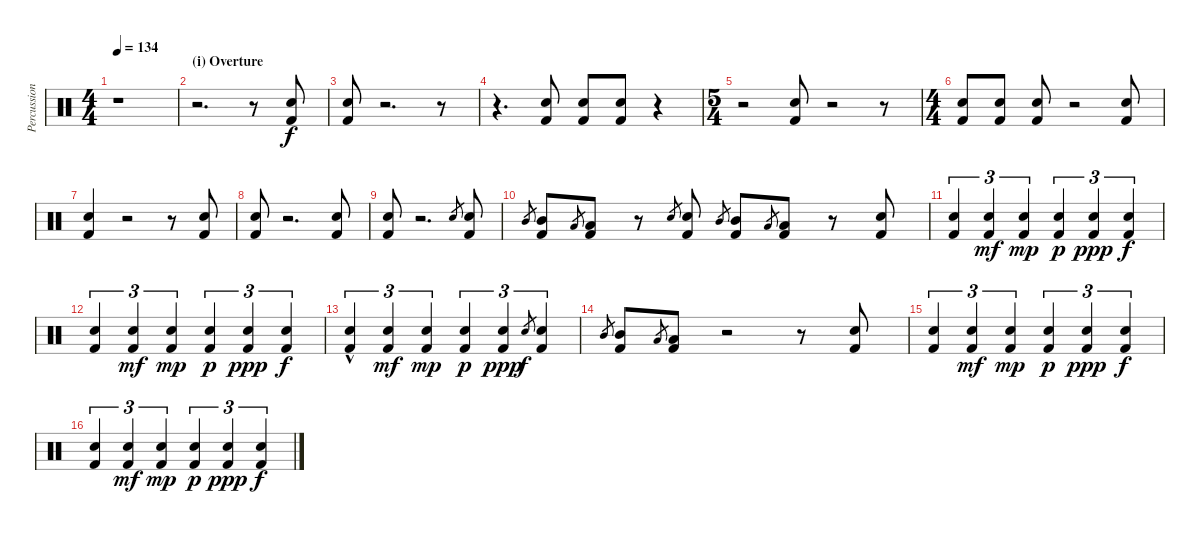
\track ("Percussion" "Percussion") {instrument percussion}
\staff {score}
\articulation defaults
\ts (4 4)
\tempo 134
\clef neutral
\ks c
r.1{dy f} |
\section ("" "(i) Overture")
r.2{d} r.8 ("Kick (hit) 2" "Electric Snare (hit)").8 |
("Kick (hit) 2" "Electric Snare (hit)").8 r.2{d} r.8 |
r.4{d} ("Kick (hit) 2" "Electric Snare (hit)").8 ("Kick (hit) 2" "Electric Snare (hit)").8 ("Kick (hit) 2" "Electric Snare (hit)").8 r.4 |
\ts (5 4)
r.2 ("Kick (hit) 2" "Electric Snare (hit)").8 r.2 r.8 |
\ts (4 4)
("Kick (hit) 2" "Electric Snare (hit)").8 ("Kick (hit) 2" "Electric Snare (hit)").8 ("Kick (hit) 2" "Electric Snare (hit)").8 r.2 ("Kick (hit) 2" "Electric Snare (hit)").8 |
("Kick (hit) 2" "Electric Snare (hit)").4 r.2 r.8 ("Kick (hit) 2" "Electric Snare (hit)").8 |
("Kick (hit) 2" "Electric Snare (hit)").8 r.2{d} ("Kick (hit) 2" "Electric Snare (hit)").8 |
("Kick (hit) 2" "Electric Snare (hit)").8 r.2{d} "Electric Snare (hit)".8{gr} ("Kick (hit) 2" "Electric Snare (hit)").8 |
"Mid Tom (hit)".8{gr} ("Kick (hit) 2" "Mid Tom (hit)").8 "Low Tom (hit)".8{gr} ("Kick (hit) 2" "Low Tom (hit)").8 r.8 "Electric Snare (hit)".8{gr} ("Kick (hit) 2" "Electric Snare (hit)").8 "Mid Tom (hit)".8{gr} ("Kick (hit) 2" "Mid Tom (hit)").8 "Low Tom (hit)".8{gr} ("Kick (hit) 2" "Low Tom (hit)").8 r.8 ("Kick (hit) 2" "Electric Snare (hit)").8 |
("Kick (hit) 2" "Electric Snare (hit)").4{tu (3 2)} ("Kick (hit) 2" "Electric Snare (hit)").4{tu (3 2) dy mf} ("Kick (hit) 2" "Electric Snare (hit)").4{tu (3 2) dy mp} ("Kick (hit) 2" "Electric Snare (hit)").4{tu (3 2) dy p} ("Kick (hit) 2" "Electric Snare (hit)").4{tu (3 2) dy ppp} ("Kick (hit) 2" "Electric Snare (hit)").4{tu (3 2) dy f} |
("Kick (hit) 2" "Electric Snare (hit)").4{tu (3 2)} ("Kick (hit) 2" "Electric Snare (hit)").4{tu (3 2) dy mf} ("Kick (hit) 2" "Electric Snare (hit)").4{tu (3 2) dy mp} ("Kick (hit) 2" "Electric Snare (hit)").4{tu (3 2) dy p} ("Kick (hit) 2" "Electric Snare (hit)").4{tu (3 2) dy ppp} ("Kick (hit) 2" "Electric Snare (hit)").4{tu (3 2) dy f} |
("Kick (hit) 2"{hac} "Electric Snare (hit)"{hac}).4{tu (3 2)} ("Kick (hit) 2" "Electric Snare (hit)").4{tu (3 2) dy mf} ("Kick (hit) 2" "Electric Snare (hit)").4{tu (3 2) dy mp} ("Kick (hit) 2" "Electric Snare (hit)").4{tu (3 2) dy p} ("Kick (hit) 2" "Electric Snare (hit)").4{tu (3 2) dy ppp} "Electric Snare (hit)".8{gr dy f} ("Kick (hit) 2" "Electric Snare (hit)").4{tu (3 2)} |
"Mid Tom (hit)".8{gr} ("Kick (hit) 2" "Mid Tom (hit)").8 "Low Tom (hit)".8{gr} ("Kick (hit) 2" "Low Tom (hit)").8 r.2 r.8 ("Kick (hit) 2" "Electric Snare (hit)").8 |
("Kick (hit) 2" "Electric Snare (hit)").4{tu (3 2)} ("Kick (hit) 2" "Electric Snare (hit)").4{tu (3 2) dy mf} ("Kick (hit) 2" "Electric Snare (hit)").4{tu (3 2) dy mp} ("Kick (hit) 2" "Electric Snare (hit)").4{tu (3 2) dy p} ("Kick (hit) 2" "Electric Snare (hit)").4{tu (3 2) dy ppp} ("Kick (hit) 2" "Electric Snare (hit)").4{tu (3 2) dy f} |
("Kick (hit) 2" "Electric Snare (hit)").4{tu (3 2)} ("Kick (hit) 2" "Electric Snare (hit)").4{tu (3 2) dy mf} ("Kick (hit) 2" "Electric Snare (hit)").4{tu (3 2) dy mp} ("Kick (hit) 2" "Electric Snare (hit)").4{tu (3 2) dy p} ("Kick (hit) 2" "Electric Snare (hit)").4{tu (3 2) dy ppp} ("Kick (hit) 2" "Electric Snare (hit)").4{tu (3 2) dy f}
